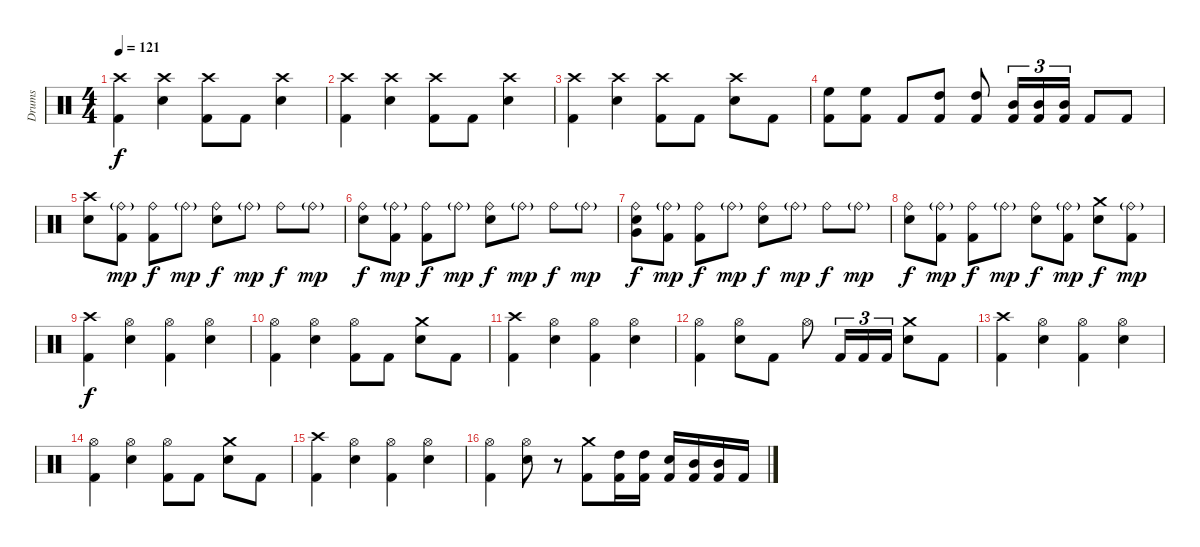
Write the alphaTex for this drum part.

\track ("Drums" "Drums") {instrument percussion}
\staff {score}
\articulation defaults
\ts (4 4)
\tempo 121
\clef neutral
\ks c
("Crash high (hit)" "Kick (hit) 2").4{dy f} ("Crash high (hit)" "Electric Snare (hit)").4 ("Crash high (hit)" "Kick (hit) 2").8 "Kick (hit) 2".8 ("Crash high (hit)" "Electric Snare (hit)").4 |
("Crash high (hit)" "Kick (hit) 2").4 ("Crash high (hit)" "Electric Snare (hit)").4 ("Crash high (hit)" "Kick (hit) 2").8 "Kick (hit) 2".8 ("Crash high (hit)" "Electric Snare (hit)").4 |
("Crash high (hit)" "Kick (hit) 2").4 ("Crash high (hit)" "Electric Snare (hit)").4 ("Crash high (hit)" "Kick (hit) 2").8 "Kick (hit) 2".8 ("Crash high (hit)" "Electric Snare (hit)").8 "Kick (hit) 2".8 |
("High Floor Tom (hit)" "Kick (hit) 2").8 ("High Floor Tom (hit)" "Kick (hit) 2").8 "Kick (hit) 2".8 ("High Tom (hit)" "Kick (hit) 2").8 ("High Tom (hit)" "Kick (hit) 2").8 ("Mid Tom (hit)" "Kick (hit) 2").16{tu (3 2)} ("Mid Tom (hit)" "Kick (hit) 2").16{tu (3 2)} ("Mid Tom (hit)" "Kick (hit) 2").16{tu (3 2)} "Kick (hit) 2".8 "Kick (hit) 2".8 |
("Crash high (hit)" "Electric Snare (hit)").8 ("Ride (bell)"{g} "Kick (hit) 2").8{dy mp} ("Ride (bell)" "Kick (hit) 2").8{dy f} "Ride (bell)"{g}.8{dy mp} ("Ride (bell)" "Electric Snare (hit)").8{dy f} "Ride (bell)"{g}.8{dy mp} "Ride (bell)".8{dy f} "Ride (bell)"{g}.8{dy mp} |
("Ride (bell)" "Electric Snare (hit)").8{dy f} ("Ride (bell)"{g} "Kick (hit) 2").8{dy mp} ("Ride (bell)" "Kick (hit) 2").8{dy f} "Ride (bell)"{g}.8{dy mp} ("Ride (bell)" "Electric Snare (hit)").8{dy f} "Ride (bell)"{g}.8{dy mp} "Ride (bell)".8{dy f} "Ride (bell)"{g}.8{dy mp} |
("Ride (bell)" "Electric Snare (hit)" "Very Low Tom (hit)").8{dy f} ("Ride (bell)"{g} "Kick (hit) 2").8{dy mp} ("Ride (bell)" "Kick (hit) 2").8{dy f} "Ride (bell)"{g}.8{dy mp} ("Ride (bell)" "Electric Snare (hit)").8{dy f} "Ride (bell)"{g}.8{dy mp} "Ride (bell)".8{dy f} "Ride (bell)"{g}.8{dy mp} |
("Ride (bell)" "Electric Snare (hit)").8{dy f} ("Ride (bell)"{g} "Kick (hit) 2").8{dy mp} ("Ride (bell)" "Kick (hit) 2").8{dy f} "Ride (bell)"{g}.8{dy mp} ("Ride (bell)" "Electric Snare (hit)").8{dy f} ("Ride (bell)"{g} "Kick (hit) 2").8{dy mp} ("Crash medium (hit)" "Electric Snare (hit)").8{dy f} ("Ride (bell)"{g} "Kick (hit) 2").8{dy mp} |
("Crash high (hit)" "Kick (hit) 2").4{dy f} ("Hi-Hat (open)" "Electric Snare (hit)").4 ("Hi-Hat (open)" "Kick (hit) 2").4 ("Hi-Hat (open)" "Electric Snare (hit)").4 |
("Hi-Hat (open)" "Kick (hit) 2").4 ("Hi-Hat (open)" "Electric Snare (hit)").4 ("Hi-Hat (open)" "Kick (hit) 2").8 "Kick (hit) 2".8 ("Crash medium (hit)" "Electric Snare (hit)").8 "Kick (hit) 2".8 |
("Crash high (hit)" "Kick (hit) 2").4 ("Hi-Hat (open)" "Electric Snare (hit)").4 ("Hi-Hat (open)" "Kick (hit) 2").4 ("Hi-Hat (open)" "Electric Snare (hit)").4 |
("Hi-Hat (open)" "Kick (hit) 2").4 ("Hi-Hat (open)" "Electric Snare (hit)").8 "Kick (hit) 2".8 "Hi-Hat (open)".8 "Kick (hit) 2".16{tu (3 2)} "Kick (hit) 2".16{tu (3 2)} "Kick (hit) 2".16{tu (3 2)} ("Crash medium (hit)" "Electric Snare (hit)").8 "Kick (hit) 2".8 |
("Crash high (hit)" "Kick (hit) 2").4 ("Hi-Hat (open)" "Electric Snare (hit)").4 ("Hi-Hat (open)" "Kick (hit) 2").4 ("Hi-Hat (open)" "Electric Snare (hit)").4 |
("Hi-Hat (open)" "Kick (hit) 2").4 ("Hi-Hat (open)" "Electric Snare (hit)").4 ("Hi-Hat (open)" "Kick (hit) 2").8 "Kick (hit) 2".8 ("Crash medium (hit)" "Electric Snare (hit)").8 "Kick (hit) 2".8 |
("Crash high (hit)" "Kick (hit) 2").4 ("Hi-Hat (open)" "Electric Snare (hit)").4 ("Hi-Hat (open)" "Kick (hit) 2").4 ("Hi-Hat (open)" "Electric Snare (hit)").4 |
("Hi-Hat (open)" "Kick (hit) 2").4 ("Hi-Hat (open)" "Electric Snare (hit)").8 r.8 ("Crash medium (hit)" "Kick (hit) 2").8 ("High Tom (hit)" "Kick (hit) 2").16 ("High Tom (hit)" "Kick (hit) 2").16 ("Electric Snare (hit)" "Kick (hit) 2").16 ("Mid Tom (hit)" "Kick (hit) 2").16 ("Mid Tom (hit)" "Kick (hit) 2").16 "Kick (hit) 2".16
